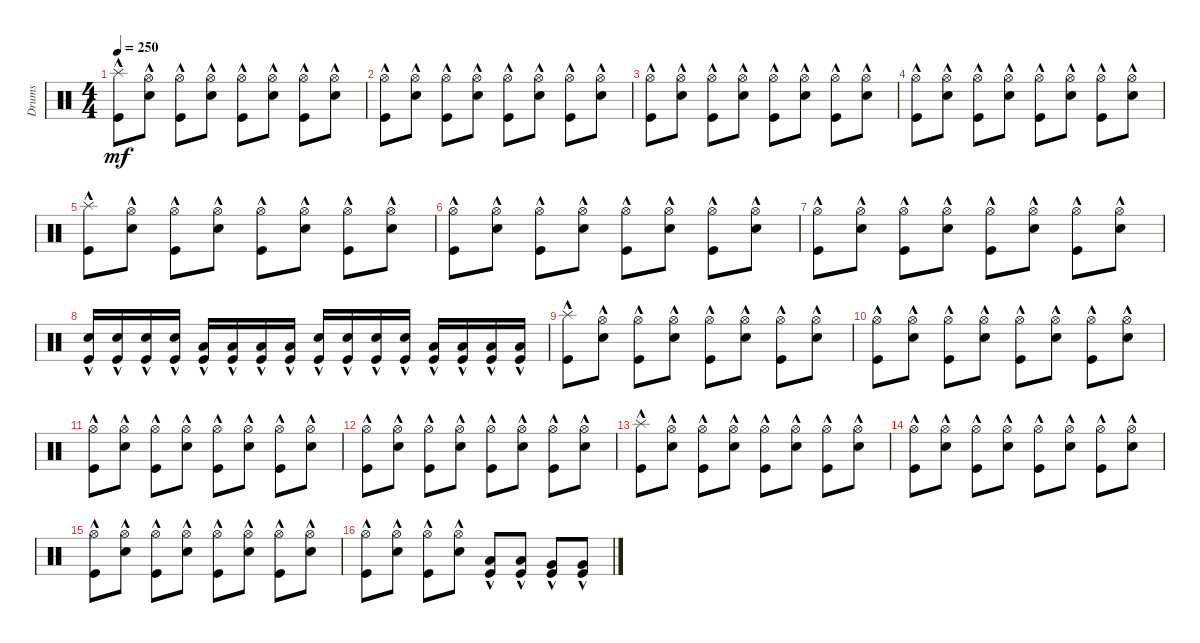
\track ("Drums" "Drums") {instrument percussion}
\staff {score}
\articulation defaults
\ts (4 4)
\tempo 250
\clef neutral
\ks c
("Kick (hit)"{hac} "Splash (hit)"{hac}).8{dy mf} ("Hi-Hat (open)"{hac} "Snare (hit) 2"{hac}).8 ("Hi-Hat (open)"{hac} "Kick (hit)"{hac}).8 ("Hi-Hat (open)"{hac} "Snare (hit) 2"{hac}).8 ("Hi-Hat (open)"{hac} "Kick (hit)"{hac}).8 ("Hi-Hat (open)"{hac} "Snare (hit) 2"{hac}).8 ("Hi-Hat (open)"{hac} "Kick (hit)"{hac}).8 ("Hi-Hat (open)"{hac} "Snare (hit) 2"{hac}).8 |
("Hi-Hat (open)"{hac} "Kick (hit)"{hac}).8 ("Hi-Hat (open)"{hac} "Snare (hit) 2"{hac}).8 ("Hi-Hat (open)"{hac} "Kick (hit)"{hac}).8 ("Hi-Hat (open)"{hac} "Snare (hit) 2"{hac}).8 ("Hi-Hat (open)"{hac} "Kick (hit)"{hac}).8 ("Hi-Hat (open)"{hac} "Snare (hit) 2"{hac}).8 ("Hi-Hat (open)"{hac} "Kick (hit)"{hac}).8 ("Hi-Hat (open)"{hac} "Snare (hit) 2"{hac}).8 |
("Hi-Hat (open)"{hac} "Kick (hit)"{hac}).8 ("Hi-Hat (open)"{hac} "Snare (hit) 2"{hac}).8 ("Hi-Hat (open)"{hac} "Kick (hit)"{hac}).8 ("Hi-Hat (open)"{hac} "Snare (hit) 2"{hac}).8 ("Hi-Hat (open)"{hac} "Kick (hit)"{hac}).8 ("Hi-Hat (open)"{hac} "Snare (hit) 2"{hac}).8 ("Hi-Hat (open)"{hac} "Kick (hit)"{hac}).8 ("Hi-Hat (open)"{hac} "Snare (hit) 2"{hac}).8 |
("Hi-Hat (open)"{hac} "Kick (hit)"{hac}).8 ("Hi-Hat (open)"{hac} "Snare (hit) 2"{hac}).8 ("Hi-Hat (open)"{hac} "Kick (hit)"{hac}).8 ("Hi-Hat (open)"{hac} "Snare (hit) 2"{hac}).8 ("Hi-Hat (open)"{hac} "Kick (hit)"{hac}).8 ("Hi-Hat (open)"{hac} "Snare (hit) 2"{hac}).8 ("Hi-Hat (open)"{hac} "Kick (hit)"{hac}).8 ("Hi-Hat (open)"{hac} "Snare (hit) 2"{hac}).8 |
("Kick (hit)"{hac} "Splash (hit)"{hac}).8 ("Hi-Hat (open)"{hac} "Snare (hit) 2"{hac}).8 ("Hi-Hat (open)"{hac} "Kick (hit)"{hac}).8 ("Hi-Hat (open)"{hac} "Snare (hit) 2"{hac}).8 ("Hi-Hat (open)"{hac} "Kick (hit)"{hac}).8 ("Hi-Hat (open)"{hac} "Snare (hit) 2"{hac}).8 ("Hi-Hat (open)"{hac} "Kick (hit)"{hac}).8 ("Hi-Hat (open)"{hac} "Snare (hit) 2"{hac}).8 |
("Hi-Hat (open)"{hac} "Kick (hit)"{hac}).8 ("Hi-Hat (open)"{hac} "Snare (hit) 2"{hac}).8 ("Hi-Hat (open)"{hac} "Kick (hit)"{hac}).8 ("Hi-Hat (open)"{hac} "Snare (hit) 2"{hac}).8 ("Hi-Hat (open)"{hac} "Kick (hit)"{hac}).8 ("Hi-Hat (open)"{hac} "Snare (hit) 2"{hac}).8 ("Hi-Hat (open)"{hac} "Kick (hit)"{hac}).8 ("Hi-Hat (open)"{hac} "Snare (hit) 2"{hac}).8 |
("Hi-Hat (open)"{hac} "Kick (hit)"{hac}).8 ("Hi-Hat (open)"{hac} "Snare (hit) 2"{hac}).8 ("Hi-Hat (open)"{hac} "Kick (hit)"{hac}).8 ("Hi-Hat (open)"{hac} "Snare (hit) 2"{hac}).8 ("Hi-Hat (open)"{hac} "Kick (hit)"{hac}).8 ("Hi-Hat (open)"{hac} "Snare (hit) 2"{hac}).8 ("Hi-Hat (open)"{hac} "Kick (hit)"{hac}).8 ("Snare (hit) 2"{hac} "Hi-Hat (open)"{hac}).8 |
("Snare (hit) 2"{hac} "Kick (hit)"{hac}).16 ("Snare (hit) 2"{hac} "Kick (hit)"{hac}).16 ("Snare (hit) 2"{hac} "Kick (hit)"{hac}).16 ("Snare (hit) 2"{hac} "Kick (hit)"{hac}).16 ("Low Tom (hit)"{hac} "Kick (hit)"{hac}).16 ("Low Tom (hit)"{hac} "Kick (hit)"{hac}).16 ("Low Tom (hit)"{hac} "Kick (hit)"{hac}).16 ("Low Tom (hit)"{hac} "Kick (hit)"{hac}).16 ("Snare (hit) 2"{hac} "Kick (hit)"{hac}).16 ("Snare (hit) 2"{hac} "Kick (hit)"{hac}).16 ("Snare (hit) 2"{hac} "Kick (hit)"{hac}).16 ("Snare (hit) 2"{hac} "Kick (hit)"{hac}).16 ("Low Tom (hit)"{hac} "Kick (hit)"{hac}).16 ("Low Tom (hit)"{hac} "Kick (hit)"{hac}).16 ("Low Tom (hit)"{hac} "Kick (hit)"{hac}).16 ("Low Tom (hit)"{hac} "Kick (hit)"{hac}).16 |
("Kick (hit)"{hac} "Splash (hit)"{hac}).8 ("Hi-Hat (open)"{hac} "Snare (hit) 2"{hac}).8 ("Hi-Hat (open)"{hac} "Kick (hit)"{hac}).8 ("Hi-Hat (open)"{hac} "Snare (hit) 2"{hac}).8 ("Hi-Hat (open)"{hac} "Kick (hit)"{hac}).8 ("Hi-Hat (open)"{hac} "Snare (hit) 2"{hac}).8 ("Hi-Hat (open)"{hac} "Kick (hit)"{hac}).8 ("Hi-Hat (open)"{hac} "Snare (hit) 2"{hac}).8 |
("Hi-Hat (open)"{hac} "Kick (hit)"{hac}).8 ("Hi-Hat (open)"{hac} "Snare (hit) 2"{hac}).8 ("Hi-Hat (open)"{hac} "Kick (hit)"{hac}).8 ("Hi-Hat (open)"{hac} "Snare (hit) 2"{hac}).8 ("Hi-Hat (open)"{hac} "Kick (hit)"{hac}).8 ("Hi-Hat (open)"{hac} "Snare (hit) 2"{hac}).8 ("Hi-Hat (open)"{hac} "Kick (hit)"{hac}).8 ("Hi-Hat (open)"{hac} "Snare (hit) 2"{hac}).8 |
("Hi-Hat (open)"{hac} "Kick (hit)"{hac}).8 ("Hi-Hat (open)"{hac} "Snare (hit) 2"{hac}).8 ("Hi-Hat (open)"{hac} "Kick (hit)"{hac}).8 ("Hi-Hat (open)"{hac} "Snare (hit) 2"{hac}).8 ("Hi-Hat (open)"{hac} "Kick (hit)"{hac}).8 ("Hi-Hat (open)"{hac} "Snare (hit) 2"{hac}).8 ("Hi-Hat (open)"{hac} "Kick (hit)"{hac}).8 ("Hi-Hat (open)"{hac} "Snare (hit) 2"{hac}).8 |
("Hi-Hat (open)"{hac} "Kick (hit)"{hac}).8 ("Hi-Hat (open)"{hac} "Snare (hit) 2"{hac}).8 ("Hi-Hat (open)"{hac} "Kick (hit)"{hac}).8 ("Hi-Hat (open)"{hac} "Snare (hit) 2"{hac}).8 ("Hi-Hat (open)"{hac} "Kick (hit)"{hac}).8 ("Hi-Hat (open)"{hac} "Snare (hit) 2"{hac}).8 ("Hi-Hat (open)"{hac} "Kick (hit)"{hac}).8 ("Hi-Hat (open)"{hac} "Snare (hit) 2"{hac}).8 |
("Kick (hit)"{hac} "Splash (hit)"{hac}).8 ("Hi-Hat (open)"{hac} "Snare (hit) 2"{hac}).8 ("Hi-Hat (open)"{hac} "Kick (hit)"{hac}).8 ("Hi-Hat (open)"{hac} "Snare (hit) 2"{hac}).8 ("Hi-Hat (open)"{hac} "Kick (hit)"{hac}).8 ("Hi-Hat (open)"{hac} "Snare (hit) 2"{hac}).8 ("Hi-Hat (open)"{hac} "Kick (hit)"{hac}).8 ("Hi-Hat (open)"{hac} "Snare (hit) 2"{hac}).8 |
("Hi-Hat (open)"{hac} "Kick (hit)"{hac}).8 ("Hi-Hat (open)"{hac} "Snare (hit) 2"{hac}).8 ("Hi-Hat (open)"{hac} "Kick (hit)"{hac}).8 ("Hi-Hat (open)"{hac} "Snare (hit) 2"{hac}).8 ("Hi-Hat (open)"{hac} "Kick (hit)"{hac}).8 ("Hi-Hat (open)"{hac} "Snare (hit) 2"{hac}).8 ("Hi-Hat (open)"{hac} "Kick (hit)"{hac}).8 ("Hi-Hat (open)"{hac} "Snare (hit) 2"{hac}).8 |
("Hi-Hat (open)"{hac} "Kick (hit)"{hac}).8 ("Hi-Hat (open)"{hac} "Snare (hit) 2"{hac}).8 ("Hi-Hat (open)"{hac} "Kick (hit)"{hac}).8 ("Hi-Hat (open)"{hac} "Snare (hit) 2"{hac}).8 ("Hi-Hat (open)"{hac} "Kick (hit)"{hac}).8 ("Hi-Hat (open)"{hac} "Snare (hit) 2"{hac}).8 ("Hi-Hat (open)"{hac} "Kick (hit)"{hac}).8 ("Snare (hit) 2"{hac} "Hi-Hat (open)"{hac}).8 |
("Hi-Hat (open)"{hac} "Kick (hit)"{hac}).8 ("Hi-Hat (open)"{hac} "Snare (hit) 2"{hac}).8 ("Hi-Hat (open)"{hac} "Kick (hit)"{hac}).8 ("Hi-Hat (open)"{hac} "Snare (hit) 2"{hac}).8 ("Low Tom (hit)"{hac} "Kick (hit)").8 ("Low Tom (hit)"{hac} "Kick (hit)").8 ("Very Low Tom (hit)"{hac} "Kick (hit)").8 ("Very Low Tom (hit)"{hac} "Kick (hit)").8
